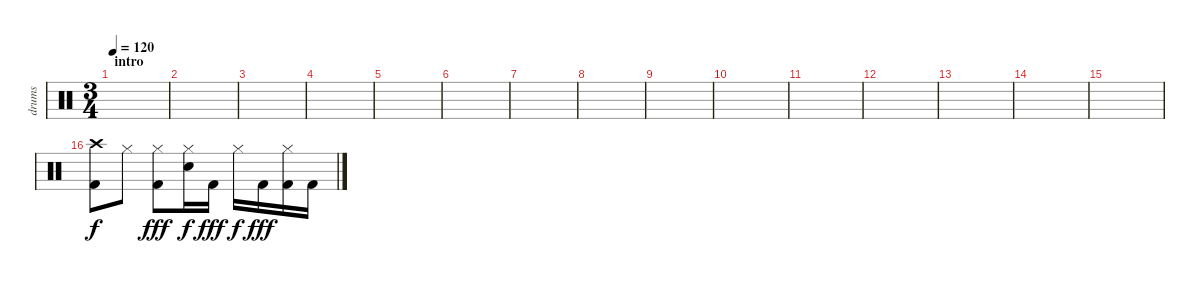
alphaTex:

\track ("drums" "drums") {instrument percussion}
\staff {score}
\articulation defaults
\ts (3 4)
\section ("" "intro")
\tempo 120
\clef neutral
\ks c
|
|
|
|
|
|
|
|
|
|
|
|
|
|
|
("Crash high (hit)" "Kick (hit) 2").8 "Hi-Hat (closed)".8{dy f} ("Hi-Hat (closed)" "Kick (hit) 2").8{dy fff} ("Hi-Hat (closed)" "Snare (hit) 2").16{dy f} "Kick (hit) 2".16{dy fff} "Hi-Hat (closed)".16{dy f} "Kick (hit) 2".16{dy fff} ("Hi-Hat (closed)" "Kick (hit) 2").16 "Kick (hit) 2".16
